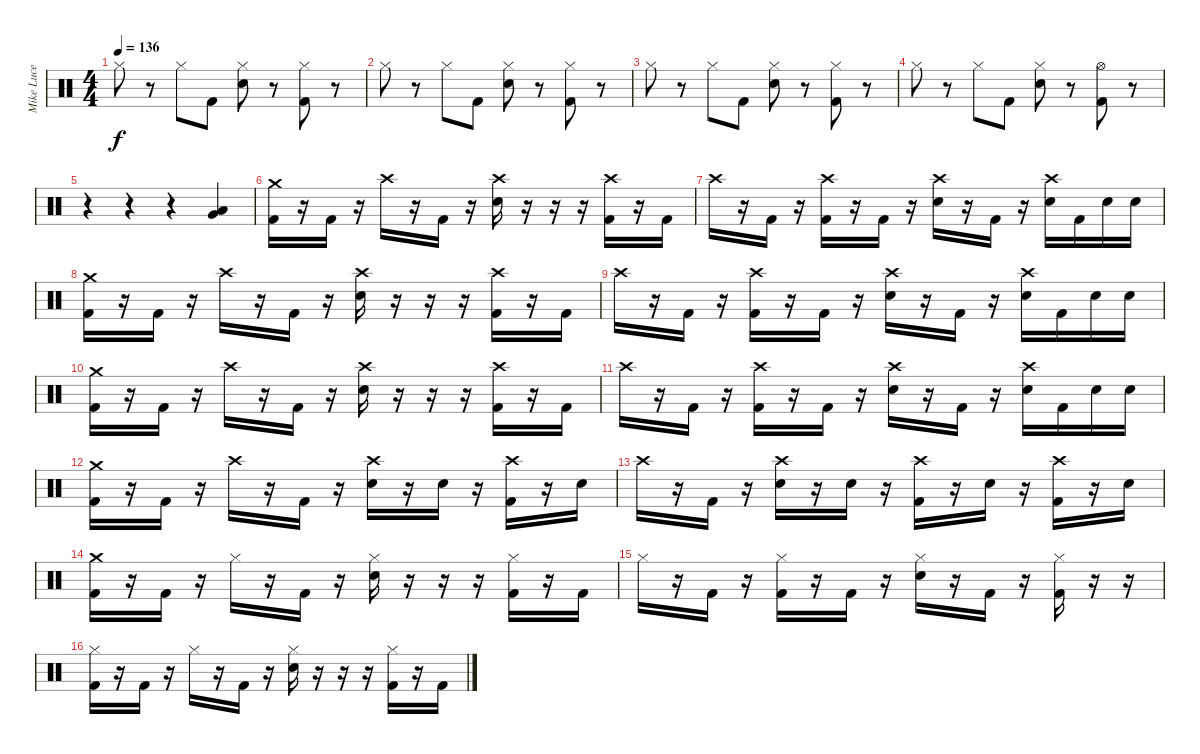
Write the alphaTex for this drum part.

\track ("Mike Luce" "Mike Luce") {instrument percussion}
\staff {score}
\articulation defaults
\ts (4 4)
\tempo 136
\clef neutral
\ks c "Hi-Hat (closed)".8{dy f}
r.8 "Hi-Hat (closed)".8 "Kick (hit) 2".8 ("Hi-Hat (closed)" "Hand Clap (hit)").8 r.8 ("Hi-Hat (closed)" "Kick (hit) 2").8 r.8 |
"Hi-Hat (closed)".8 r.8 "Hi-Hat (closed)".8 "Kick (hit) 2".8 ("Hi-Hat (closed)" "Hand Clap (hit)").8 r.8 ("Hi-Hat (closed)" "Kick (hit) 2").8 r.8 |
"Hi-Hat (closed)".8 r.8 "Hi-Hat (closed)".8 "Kick (hit) 2".8 ("Hi-Hat (closed)" "Hand Clap (hit)").8 r.8 ("Hi-Hat (closed)" "Kick (hit) 2").8 r.8 |
"Hi-Hat (closed)".8 r.8 "Hi-Hat (closed)".8 "Kick (hit) 2".8 ("Hi-Hat (closed)" "Hand Clap (hit)").8 r.8 ("Hi-Hat (open)" "Kick (hit) 2").8 r.8 |
r.4 r.4 r.4 ("Very Low Tom (hit)" "Low Tom (hit)").4 |
("Crash medium (hit)" "Kick (hit) 2").16 r.16 "Kick (hit) 2".16 r.16 "Crash high (hit)".16 r.16 "Kick (hit) 2".16 r.16 ("Crash high (hit)" "Electric Snare (hit)").16 r.16 r.16 r.16 ("Crash high (hit)" "Kick (hit) 2").16 r.16 "Kick (hit) 2".16 |
"Crash high (hit)".16 r.16 "Kick (hit) 2".16 r.16 ("Crash high (hit)" "Kick (hit) 2").16 r.16 "Kick (hit) 2".16 r.16 ("Crash high (hit)" "Electric Snare (hit)").16 r.16 "Kick (hit) 2".16 r.16 ("Crash high (hit)" "Electric Snare (hit)").16 "Kick (hit) 2".16 "Electric Snare (hit)".16 "Electric Snare (hit)".16 |
("Crash medium (hit)" "Kick (hit) 2").16 r.16 "Kick (hit) 2".16 r.16 "Crash high (hit)".16 r.16 "Kick (hit) 2".16 r.16 ("Crash high (hit)" "Electric Snare (hit)").16 r.16 r.16 r.16 ("Crash high (hit)" "Kick (hit) 2").16 r.16 "Kick (hit) 2".16 |
"Crash high (hit)".16 r.16 "Kick (hit) 2".16 r.16 ("Crash high (hit)" "Kick (hit) 2").16 r.16 "Kick (hit) 2".16 r.16 ("Crash high (hit)" "Electric Snare (hit)").16 r.16 "Kick (hit) 2".16 r.16 ("Crash high (hit)" "Electric Snare (hit)").16 "Kick (hit) 2".16 "Electric Snare (hit)".16 "Electric Snare (hit)".16 |
("Crash medium (hit)" "Kick (hit) 2").16 r.16 "Kick (hit) 2".16 r.16 "Crash high (hit)".16 r.16 "Kick (hit) 2".16 r.16 ("Crash high (hit)" "Electric Snare (hit)").16 r.16 r.16 r.16 ("Crash high (hit)" "Kick (hit) 2").16 r.16 "Kick (hit) 2".16 |
"Crash high (hit)".16 r.16 "Kick (hit) 2".16 r.16 ("Crash high (hit)" "Kick (hit) 2").16 r.16 "Kick (hit) 2".16 r.16 ("Crash high (hit)" "Electric Snare (hit)").16 r.16 "Kick (hit) 2".16 r.16 ("Crash high (hit)" "Electric Snare (hit)").16 "Kick (hit) 2".16 "Electric Snare (hit)".16 "Electric Snare (hit)".16 |
("Crash medium (hit)" "Kick (hit) 2").16 r.16 "Kick (hit) 2".16 r.16 "Crash high (hit)".16 r.16 "Kick (hit) 2".16 r.16 ("Crash high (hit)" "Electric Snare (hit)").16 r.16 "Electric Snare (hit)".16 r.16 ("Crash high (hit)" "Kick (hit) 2").16 r.16 "Electric Snare (hit)".16 |
"Crash high (hit)".16 r.16 "Kick (hit) 2".16 r.16 ("Crash high (hit)" "Electric Snare (hit)").16 r.16 "Electric Snare (hit)".16 r.16 ("Crash high (hit)" "Kick (hit) 2").16 r.16 "Electric Snare (hit)".16 r.16 ("Crash high (hit)" "Kick (hit) 2").16 r.16 "Electric Snare (hit)".16 |
("Crash medium (hit)" "Kick (hit) 2").16 r.16 "Kick (hit) 2".16 r.16 "Hi-Hat (closed)".16 r.16 "Kick (hit) 2".16 r.16 ("Hi-Hat (closed)" "Electric Snare (hit)").16 r.16 r.16 r.16 ("Hi-Hat (closed)" "Kick (hit) 2").16 r.16 "Kick (hit) 2".16 |
"Hi-Hat (closed)".16 r.16 "Kick (hit) 2".16 r.16 ("Hi-Hat (closed)" "Kick (hit) 2").16 r.16 "Kick (hit) 2".16 r.16 ("Hi-Hat (closed)" "Electric Snare (hit)").16 r.16 "Kick (hit) 2".16 r.16 ("Hi-Hat (closed)" "Kick (hit) 2").16 r.16 r.16 |
("Hi-Hat (closed)" "Kick (hit) 2").16 r.16 "Kick (hit) 2".16 r.16 "Hi-Hat (closed)".16 r.16 "Kick (hit) 2".16 r.16 ("Hi-Hat (closed)" "Electric Snare (hit)").16 r.16 r.16 r.16 ("Hi-Hat (closed)" "Kick (hit) 2").16 r.16 "Kick (hit) 2".16
